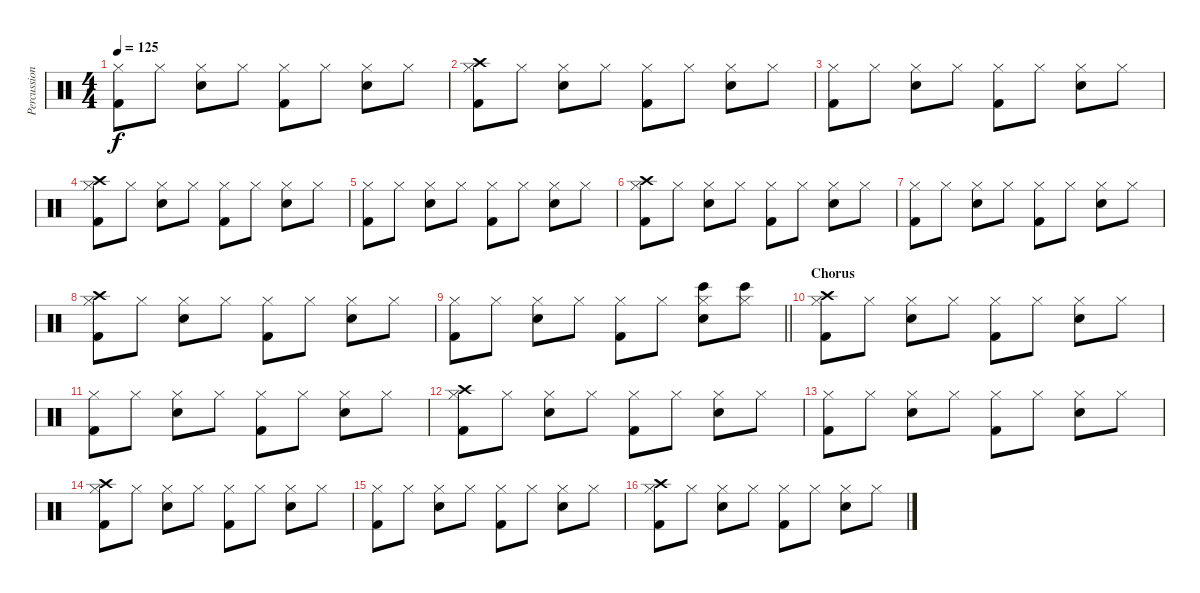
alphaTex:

\track ("Percussion" "Percussion") {instrument percussion}
\staff {score}
\articulation defaults
\ts (4 4)
\tempo 125
\clef neutral
\ks c
("Hi-Hat (closed)" "Kick (hit) 2").8{dy f} "Hi-Hat (closed)".8 ("Hi-Hat (closed)" "Snare (hit) 2").8 "Hi-Hat (closed)".8 ("Hi-Hat (closed)" "Kick (hit) 2").8 "Hi-Hat (closed)".8 ("Hi-Hat (closed)" "Snare (hit) 2").8 "Hi-Hat (closed)".8 |
("Crash high (hit)" "Hi-Hat (closed)" "Kick (hit) 2").8 "Hi-Hat (closed)".8 ("Hi-Hat (closed)" "Snare (hit) 2").8 "Hi-Hat (closed)".8 ("Hi-Hat (closed)" "Kick (hit) 2").8 "Hi-Hat (closed)".8 ("Hi-Hat (closed)" "Snare (hit) 2").8 "Hi-Hat (closed)".8 |
("Hi-Hat (closed)" "Kick (hit) 2").8 "Hi-Hat (closed)".8 ("Hi-Hat (closed)" "Snare (hit) 2").8 "Hi-Hat (closed)".8 ("Hi-Hat (closed)" "Kick (hit) 2").8 "Hi-Hat (closed)".8 ("Hi-Hat (closed)" "Snare (hit) 2").8 "Hi-Hat (closed)".8 |
("Crash high (hit)" "Hi-Hat (closed)" "Kick (hit) 2").8 "Hi-Hat (closed)".8 ("Hi-Hat (closed)" "Snare (hit) 2").8 "Hi-Hat (closed)".8 ("Hi-Hat (closed)" "Kick (hit) 2").8 "Hi-Hat (closed)".8 ("Hi-Hat (closed)" "Snare (hit) 2").8 "Hi-Hat (closed)".8 |
("Hi-Hat (closed)" "Kick (hit) 2").8 "Hi-Hat (closed)".8 ("Hi-Hat (closed)" "Snare (hit) 2").8 "Hi-Hat (closed)".8 ("Hi-Hat (closed)" "Kick (hit) 2").8 "Hi-Hat (closed)".8 ("Hi-Hat (closed)" "Snare (hit) 2").8 "Hi-Hat (closed)".8 |
("Crash high (hit)" "Hi-Hat (closed)" "Kick (hit) 2").8 "Hi-Hat (closed)".8 ("Hi-Hat (closed)" "Snare (hit) 2").8 "Hi-Hat (closed)".8 ("Hi-Hat (closed)" "Kick (hit) 2").8 "Hi-Hat (closed)".8 ("Hi-Hat (closed)" "Snare (hit) 2").8 "Hi-Hat (closed)".8 |
("Hi-Hat (closed)" "Kick (hit) 2").8 "Hi-Hat (closed)".8 ("Hi-Hat (closed)" "Snare (hit) 2").8 "Hi-Hat (closed)".8 ("Hi-Hat (closed)" "Kick (hit) 2").8 "Hi-Hat (closed)".8 ("Hi-Hat (closed)" "Snare (hit) 2").8 "Hi-Hat (closed)".8 |
("Crash high (hit)" "Hi-Hat (closed)" "Kick (hit) 2").8 "Hi-Hat (closed)".8 ("Hi-Hat (closed)" "Snare (hit) 2").8 "Hi-Hat (closed)".8 ("Hi-Hat (closed)" "Kick (hit) 2").8 "Hi-Hat (closed)".8 ("Hi-Hat (closed)" "Snare (hit) 2").8 "Hi-Hat (closed)".8 |
\barLineRight lightlight
("Hi-Hat (closed)" "Kick (hit) 2").8 "Hi-Hat (closed)".8 ("Hi-Hat (closed)" "Snare (hit) 2").8 "Hi-Hat (closed)".8 ("Hi-Hat (closed)" "Kick (hit) 2").8 "Hi-Hat (closed)".8 ("Bongo High (hit)" "Hi-Hat (closed)" "Snare (hit) 2").8 ("Bongo High (hit)" "Hi-Hat (closed)").8 |
\section ("" "Chorus ")
("Crash high (hit)" "Hi-Hat (closed)" "Kick (hit) 2").8 "Hi-Hat (closed)".8 ("Hi-Hat (closed)" "Snare (hit) 2").8 "Hi-Hat (closed)".8 ("Hi-Hat (closed)" "Kick (hit) 2").8 "Hi-Hat (closed)".8 ("Hi-Hat (closed)" "Snare (hit) 2").8 "Hi-Hat (closed)".8 |
("Hi-Hat (closed)" "Kick (hit) 2").8 "Hi-Hat (closed)".8 ("Hi-Hat (closed)" "Snare (hit) 2").8 "Hi-Hat (closed)".8 ("Hi-Hat (closed)" "Kick (hit) 2").8 "Hi-Hat (closed)".8 ("Hi-Hat (closed)" "Snare (hit) 2").8 "Hi-Hat (closed)".8 |
("Crash high (hit)" "Hi-Hat (closed)" "Kick (hit) 2").8 "Hi-Hat (closed)".8 ("Hi-Hat (closed)" "Snare (hit) 2").8 "Hi-Hat (closed)".8 ("Hi-Hat (closed)" "Kick (hit) 2").8 "Hi-Hat (closed)".8 ("Hi-Hat (closed)" "Snare (hit) 2").8 "Hi-Hat (closed)".8 |
("Hi-Hat (closed)" "Kick (hit) 2").8 "Hi-Hat (closed)".8 ("Hi-Hat (closed)" "Snare (hit) 2").8 "Hi-Hat (closed)".8 ("Hi-Hat (closed)" "Kick (hit) 2").8 "Hi-Hat (closed)".8 ("Hi-Hat (closed)" "Snare (hit) 2").8 "Hi-Hat (closed)".8 |
("Crash high (hit)" "Hi-Hat (closed)" "Kick (hit) 2").8 "Hi-Hat (closed)".8 ("Hi-Hat (closed)" "Snare (hit) 2").8 "Hi-Hat (closed)".8 ("Hi-Hat (closed)" "Kick (hit) 2").8 "Hi-Hat (closed)".8 ("Hi-Hat (closed)" "Snare (hit) 2").8 "Hi-Hat (closed)".8 |
("Hi-Hat (closed)" "Kick (hit) 2").8 "Hi-Hat (closed)".8 ("Hi-Hat (closed)" "Snare (hit) 2").8 "Hi-Hat (closed)".8 ("Hi-Hat (closed)" "Kick (hit) 2").8 "Hi-Hat (closed)".8 ("Hi-Hat (closed)" "Snare (hit) 2").8 "Hi-Hat (closed)".8 |
("Crash high (hit)" "Hi-Hat (closed)" "Kick (hit) 2").8 "Hi-Hat (closed)".8 ("Hi-Hat (closed)" "Snare (hit) 2").8 "Hi-Hat (closed)".8 ("Hi-Hat (closed)" "Kick (hit) 2").8 "Hi-Hat (closed)".8 ("Hi-Hat (closed)" "Snare (hit) 2").8 "Hi-Hat (closed)".8
